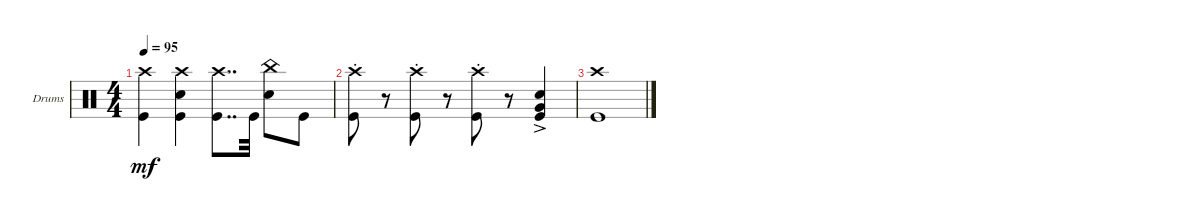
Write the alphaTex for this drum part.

\defaultSystemsLayout 4
\bracketExtendMode groupsimilarinstruments
\firstSystemTrackNameOrientation horizontal
\otherSystemsTrackNameOrientation horizontal
\track ("Drumkit" "Drums") {instrument percussion}
\staff {score}
\articulation defaults
\ts (4 4)
\tempo 95
\clef neutral
\ks c
("Crash high (hit)" "Kick (hit)").4{dy mf} ("Crash high (hit)" "Snare (hit) 2" "Kick (hit)").4 ("Crash high (hit)" "Kick (hit)").8{dd} "Kick (hit)".32 ("Snare (hit) 2" "China (hit)").8 "Kick (hit)".8 |
("Crash high (hit)"{st} "Kick (hit)"{st}).8 r.8 ("Crash high (hit)"{st} "Kick (hit)"{st}).8 r.8 ("Crash high (hit)"{st} "Kick (hit)"{st}).8 r.8 ("Snare (hit) 2"{ac} "Very Low Tom (hit)"{ac} "Kick (hit)"{ac}).4 |
("Crash high (hit)" "Kick (hit)").1
